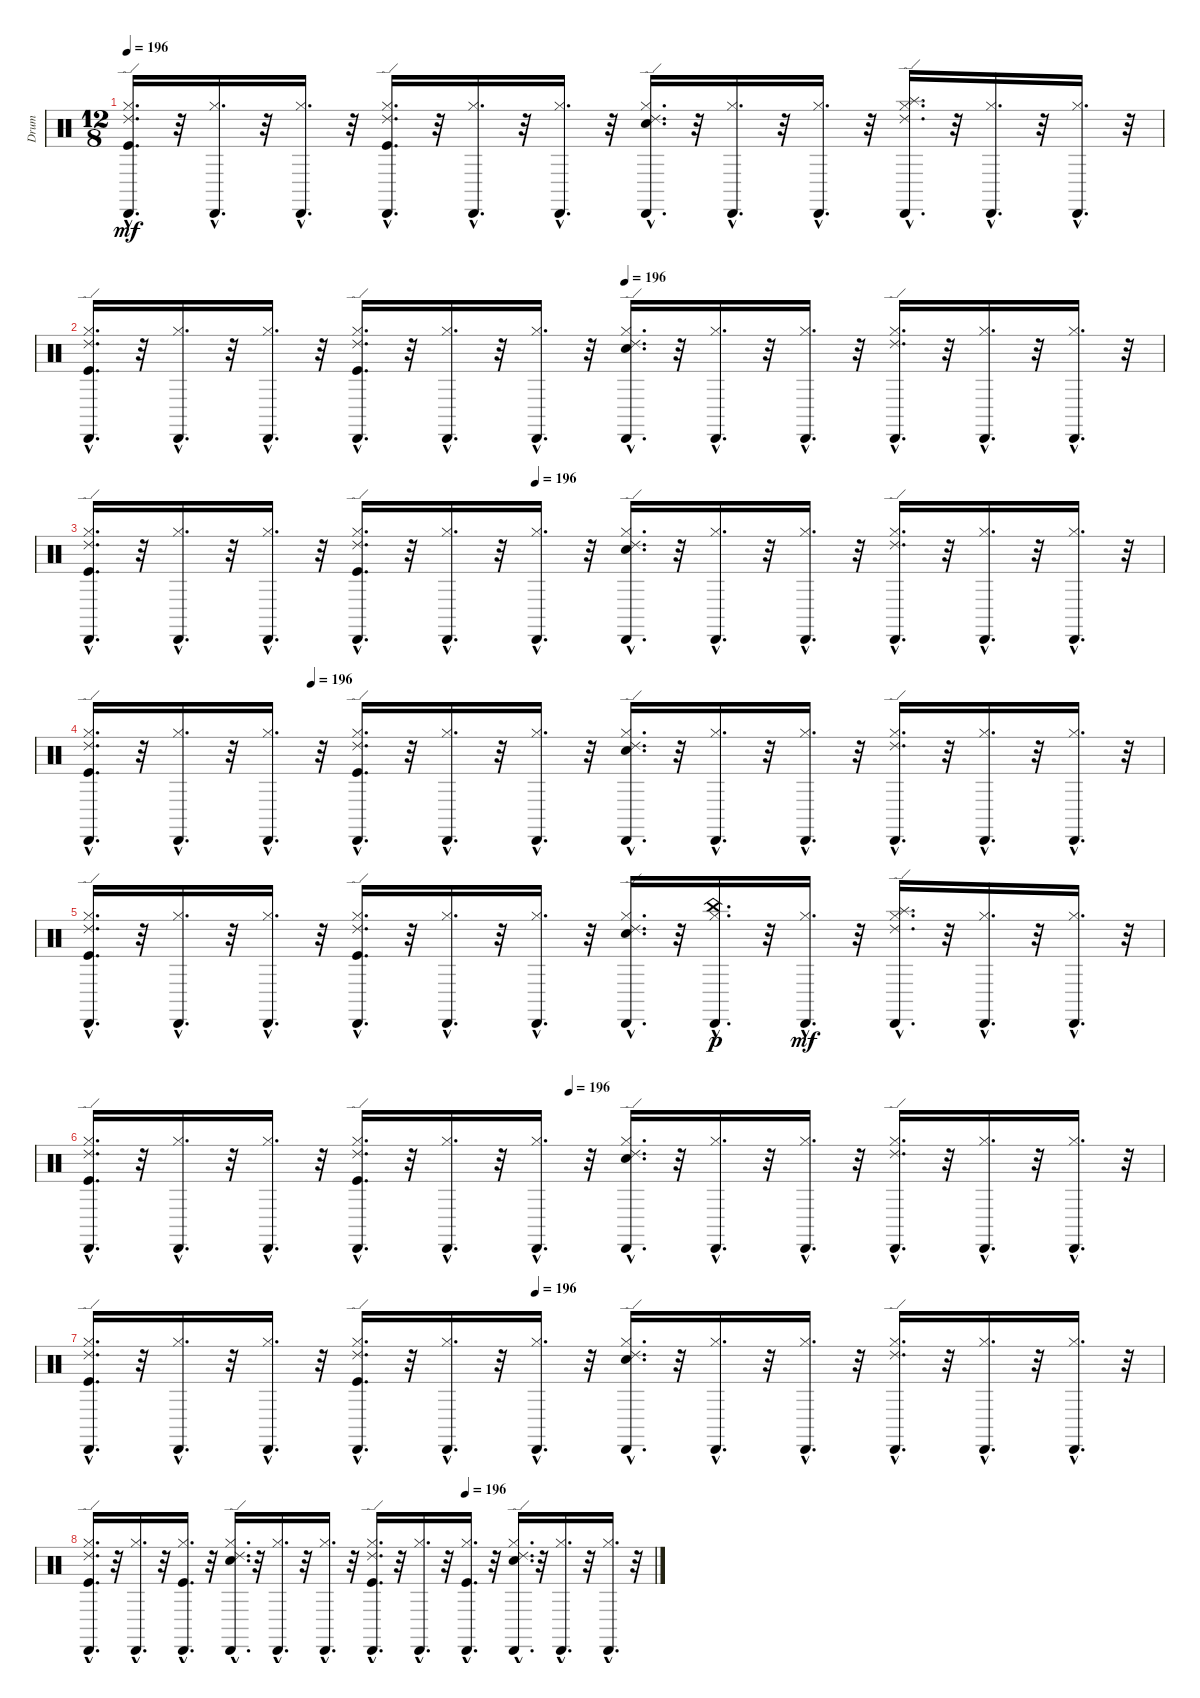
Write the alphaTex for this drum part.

\track ("Drum" "Drum") {instrument percussion}
\staff {score}
\articulation defaults
\ts (12 8)
\tempo 196
\clef neutral
\ks c
("Hi-Hat (closed)"{hac} "Kick (hit)"{hac} "Cabasa (hit)"{hac} "Ride (edge) 2"{hac}).16{d dy mf} r.32 ("Hi-Hat (closed)"{hac} "Cabasa (hit)"{hac}).16{d} r.32 ("Hi-Hat (closed)"{hac} "Cabasa (hit)"{hac}).16{d} r.32 ("Hi-Hat (closed)"{hac} "Kick (hit)"{hac} "Cabasa (hit)"{hac} "Ride (edge) 2"{hac}).16{d} r.32 ("Hi-Hat (closed)"{hac} "Cabasa (hit)"{hac}).16{d} r.32 ("Hi-Hat (closed)"{hac} "Cabasa (hit)"{hac}).16{d} r.32 ("Hi-Hat (closed)"{hac} "Snare (hit) 2"{hac} "Cabasa (hit)"{hac} "Ride (edge) 2"{hac}).16{d} r.32 ("Hi-Hat (closed)"{hac} "Cabasa (hit)"{hac}).16{d} r.32 ("Hi-Hat (closed)"{hac} "Cabasa (hit)"{hac}).16{d} r.32 ("Splash (hit)"{hac} "Hi-Hat (closed)"{hac} "Cabasa (hit)"{hac} "Ride (edge) 2"{hac}).16{d} r.32 ("Hi-Hat (closed)"{hac} "Cabasa (hit)"{hac}).16{d} r.32 ("Hi-Hat (closed)"{hac} "Cabasa (hit)"{hac}).16{d} r.32 |
\tempo (196 0.5)
("Hi-Hat (closed)"{hac} "Kick (hit)"{hac} "Cabasa (hit)"{hac} "Ride (edge) 2"{hac}).16{d} r.32 ("Hi-Hat (closed)"{hac} "Cabasa (hit)"{hac}).16{d} r.32 ("Hi-Hat (closed)"{hac} "Cabasa (hit)"{hac}).16{d} r.32 ("Hi-Hat (closed)"{hac} "Kick (hit)"{hac} "Cabasa (hit)"{hac} "Ride (edge) 2"{hac}).16{d} r.32 ("Hi-Hat (closed)"{hac} "Cabasa (hit)"{hac}).16{d} r.32 ("Hi-Hat (closed)"{hac} "Cabasa (hit)"{hac}).16{d} r.32 ("Hi-Hat (closed)"{hac} "Snare (hit) 2"{hac} "Cabasa (hit)"{hac} "Ride (edge) 2"{hac}).16{d} r.32 ("Hi-Hat (closed)"{hac} "Cabasa (hit)"{hac}).16{d} r.32 ("Hi-Hat (closed)"{hac} "Cabasa (hit)"{hac}).16{d} r.32 ("Hi-Hat (closed)"{hac} "Cabasa (hit)"{hac} "Ride (edge) 2"{hac}).16{d} r.32 ("Hi-Hat (closed)"{hac} "Cabasa (hit)"{hac}).16{d} r.32 ("Hi-Hat (closed)"{hac} "Cabasa (hit)"{hac}).16{d} r.32 |
\tempo (196 0.4166666666666667)
("Ride (edge) 2"{hac} "Cabasa (hit)"{hac} "Kick (hit)"{hac} "Hi-Hat (closed)"{hac}).16{d} r.32 ("Cabasa (hit)"{hac} "Hi-Hat (closed)"{hac}).16{d} r.32 ("Cabasa (hit)"{hac} "Hi-Hat (closed)"{hac}).16{d} r.32 ("Ride (edge) 2"{hac} "Cabasa (hit)"{hac} "Kick (hit)"{hac} "Hi-Hat (closed)"{hac}).16{d} r.32 ("Cabasa (hit)"{hac} "Hi-Hat (closed)"{hac}).16{d} r.32 ("Cabasa (hit)"{hac} "Hi-Hat (closed)"{hac}).16{d} r.32 ("Ride (edge) 2"{hac} "Cabasa (hit)"{hac} "Snare (hit) 2"{hac} "Hi-Hat (closed)"{hac}).16{d} r.32 ("Cabasa (hit)"{hac} "Hi-Hat (closed)"{hac}).16{d} r.32 ("Cabasa (hit)"{hac} "Hi-Hat (closed)"{hac}).16{d} r.32 ("Ride (edge) 2"{hac} "Cabasa (hit)"{hac} "Hi-Hat (closed)"{hac}).16{d} r.32 ("Cabasa (hit)"{hac} "Hi-Hat (closed)"{hac}).16{d} r.32 ("Cabasa (hit)"{hac} "Hi-Hat (closed)"{hac}).16{d} r.32 |
\tempo (196 0.20833333333333334)
("Hi-Hat (closed)"{hac} "Kick (hit)"{hac} "Cabasa (hit)"{hac} "Ride (edge) 2"{hac}).16{d} r.32 ("Hi-Hat (closed)"{hac} "Cabasa (hit)"{hac}).16{d} r.32 ("Hi-Hat (closed)"{hac} "Cabasa (hit)"{hac}).16{d} r.32 ("Hi-Hat (closed)"{hac} "Kick (hit)"{hac} "Cabasa (hit)"{hac} "Ride (edge) 2"{hac}).16{d} r.32 ("Hi-Hat (closed)"{hac} "Cabasa (hit)"{hac}).16{d} r.32 ("Hi-Hat (closed)"{hac} "Cabasa (hit)"{hac}).16{d} r.32 ("Hi-Hat (closed)"{hac} "Snare (hit) 2"{hac} "Cabasa (hit)"{hac} "Ride (edge) 2"{hac}).16{d} r.32 ("Hi-Hat (closed)"{hac} "Cabasa (hit)"{hac}).16{d} r.32 ("Hi-Hat (closed)"{hac} "Cabasa (hit)"{hac}).16{d} r.32 ("Hi-Hat (closed)"{hac} "Cabasa (hit)"{hac} "Ride (edge) 2"{hac}).16{d} r.32 ("Hi-Hat (closed)"{hac} "Cabasa (hit)"{hac}).16{d} r.32 ("Hi-Hat (closed)"{hac} "Cabasa (hit)"{hac}).16{d} r.32 |
("Hi-Hat (closed)"{hac} "Kick (hit)"{hac} "Cabasa (hit)"{hac} "Ride (edge) 2"{hac}).16{d} r.32 ("Hi-Hat (closed)"{hac} "Cabasa (hit)"{hac}).16{d} r.32 ("Hi-Hat (closed)"{hac} "Cabasa (hit)"{hac}).16{d} r.32 ("Hi-Hat (closed)"{hac} "Kick (hit)"{hac} "Cabasa (hit)"{hac} "Ride (edge) 2"{hac}).16{d} r.32 ("Hi-Hat (closed)"{hac} "Cabasa (hit)"{hac}).16{d} r.32 ("Hi-Hat (closed)"{hac} "Cabasa (hit)"{hac}).16{d} r.32 ("Hi-Hat (closed)"{hac} "Snare (hit) 2"{hac} "Cabasa (hit)"{hac} "Ride (edge) 2"{hac}).16{d} r.32 ("Hi-Hat (closed)"{hac} "Cabasa (hit)"{hac} "China (hit)"{hac}).16{d dy p} r.32 ("Hi-Hat (closed)"{hac} "Cabasa (hit)"{hac}).16{d dy mf} r.32 ("Splash (hit)"{hac} "Hi-Hat (closed)"{hac} "Cabasa (hit)"{hac} "Ride (edge) 2"{hac}).16{d} r.32 ("Hi-Hat (closed)"{hac} "Cabasa (hit)"{hac}).16{d} r.32 ("Hi-Hat (closed)"{hac} "Cabasa (hit)"{hac}).16{d} r.32 |
\tempo (196 0.4479166666666667)
("Hi-Hat (closed)"{hac} "Kick (hit)"{hac} "Cabasa (hit)"{hac} "Ride (edge) 2"{hac}).16{d} r.32 ("Hi-Hat (closed)"{hac} "Cabasa (hit)"{hac}).16{d} r.32 ("Hi-Hat (closed)"{hac} "Cabasa (hit)"{hac}).16{d} r.32 ("Hi-Hat (closed)"{hac} "Kick (hit)"{hac} "Cabasa (hit)"{hac} "Ride (edge) 2"{hac}).16{d} r.32 ("Hi-Hat (closed)"{hac} "Cabasa (hit)"{hac}).16{d} r.32 ("Hi-Hat (closed)"{hac} "Cabasa (hit)"{hac}).16{d} r.32 ("Hi-Hat (closed)"{hac} "Snare (hit) 2"{hac} "Cabasa (hit)"{hac} "Ride (edge) 2"{hac}).16{d} r.32 ("Hi-Hat (closed)"{hac} "Cabasa (hit)"{hac}).16{d} r.32 ("Hi-Hat (closed)"{hac} "Cabasa (hit)"{hac}).16{d} r.32 ("Hi-Hat (closed)"{hac} "Cabasa (hit)"{hac} "Ride (edge) 2"{hac}).16{d} r.32 ("Hi-Hat (closed)"{hac} "Cabasa (hit)"{hac}).16{d} r.32 ("Hi-Hat (closed)"{hac} "Cabasa (hit)"{hac}).16{d} r.32 |
\tempo (196 0.4166666666666667)
("Ride (edge) 2"{hac} "Cabasa (hit)"{hac} "Kick (hit)"{hac} "Hi-Hat (closed)"{hac}).16{d} r.32 ("Cabasa (hit)"{hac} "Hi-Hat (closed)"{hac}).16{d} r.32 ("Cabasa (hit)"{hac} "Hi-Hat (closed)"{hac}).16{d} r.32 ("Ride (edge) 2"{hac} "Cabasa (hit)"{hac} "Kick (hit)"{hac} "Hi-Hat (closed)"{hac}).16{d} r.32 ("Cabasa (hit)"{hac} "Hi-Hat (closed)"{hac}).16{d} r.32 ("Cabasa (hit)"{hac} "Hi-Hat (closed)"{hac}).16{d} r.32 ("Ride (edge) 2"{hac} "Cabasa (hit)"{hac} "Snare (hit) 2"{hac} "Hi-Hat (closed)"{hac}).16{d} r.32 ("Cabasa (hit)"{hac} "Hi-Hat (closed)"{hac}).16{d} r.32 ("Cabasa (hit)"{hac} "Hi-Hat (closed)"{hac}).16{d} r.32 ("Ride (edge) 2"{hac} "Cabasa (hit)"{hac} "Hi-Hat (closed)"{hac}).16{d} r.32 ("Cabasa (hit)"{hac} "Hi-Hat (closed)"{hac}).16{d} r.32 ("Cabasa (hit)"{hac} "Hi-Hat (closed)"{hac}).16{d} r.32 |
\tempo (196 0.6666666666666666)
("Hi-Hat (closed)"{hac} "Kick (hit)"{hac} "Cabasa (hit)"{hac} "Ride (edge) 2"{hac}).16{d} r.32 ("Hi-Hat (closed)"{hac} "Cabasa (hit)"{hac}).16{d} r.32 ("Kick (hit)"{hac} "Hi-Hat (closed)"{hac} "Cabasa (hit)"{hac}).16{d} r.32 ("Snare (hit) 2"{hac} "Hi-Hat (closed)"{hac} "Cabasa (hit)"{hac} "Ride (edge) 2"{hac}).16{d} r.32 ("Hi-Hat (closed)"{hac} "Cabasa (hit)"{hac}).16{d} r.32 ("Hi-Hat (closed)"{hac} "Cabasa (hit)"{hac}).16{d} r.32 ("Kick (hit)"{hac} "Hi-Hat (closed)"{hac} "Cabasa (hit)"{hac} "Ride (edge) 2"{hac}).16{d} r.32 ("Hi-Hat (closed)"{hac} "Cabasa (hit)"{hac}).16{d} r.32 ("Kick (hit)"{hac} "Hi-Hat (closed)"{hac} "Cabasa (hit)"{hac}).16{d} r.32 ("Snare (hit) 2"{hac} "Hi-Hat (closed)"{hac} "Cabasa (hit)"{hac} "Ride (edge) 2"{hac}).16{d} r.32 ("Hi-Hat (closed)"{hac} "Cabasa (hit)"{hac}).16{d} r.32 ("Hi-Hat (closed)"{hac} "Cabasa (hit)"{hac}).16{d} r.32
